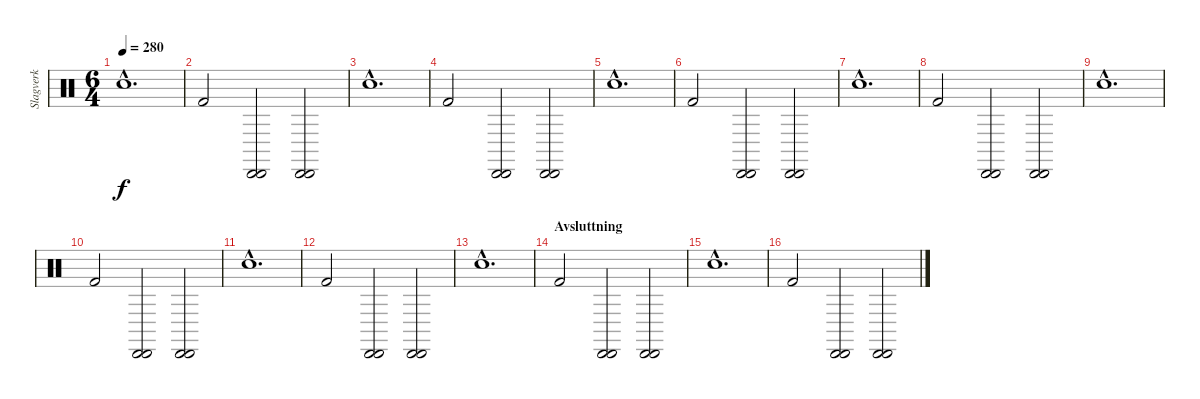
\track ("Slagverk" "Slagverk") {instrument percussion}
\staff {score}
\articulation defaults
\ts (6 4)
\tempo 280
\clef neutral
\ks c "Snare (hit) 2"{hac}.1{d dy f}
|
"Kick (hit) 2".2 ("Cabasa (hit)" "Cabasa (hit)").2 ("Cabasa (hit)" "Cabasa (hit)").2 |
"Snare (hit) 2"{hac}.1{d} |
"Kick (hit) 2".2 ("Cabasa (hit)" "Cabasa (hit)").2 ("Cabasa (hit)" "Cabasa (hit)").2 |
"Snare (hit) 2"{hac}.1{d} |
"Kick (hit) 2".2 ("Cabasa (hit)" "Cabasa (hit)").2 ("Cabasa (hit)" "Cabasa (hit)").2 |
"Snare (hit) 2"{hac}.1{d} |
"Kick (hit) 2".2 ("Cabasa (hit)" "Cabasa (hit)").2 ("Cabasa (hit)" "Cabasa (hit)").2 |
"Snare (hit) 2"{hac}.1{d} |
"Kick (hit) 2".2 ("Cabasa (hit)" "Cabasa (hit)").2 ("Cabasa (hit)" "Cabasa (hit)").2 |
"Snare (hit) 2"{hac}.1{d} |
"Kick (hit) 2".2 ("Cabasa (hit)" "Cabasa (hit)").2 ("Cabasa (hit)" "Cabasa (hit)").2 |
"Snare (hit) 2"{hac}.1{d} |
\section ("" "Avsluttning")
"Kick (hit) 2".2 ("Cabasa (hit)" "Cabasa (hit)").2 ("Cabasa (hit)" "Cabasa (hit)").2 |
"Snare (hit) 2"{hac}.1{d} |
"Kick (hit) 2".2 ("Cabasa (hit)" "Cabasa (hit)").2 ("Cabasa (hit)" "Cabasa (hit)").2
